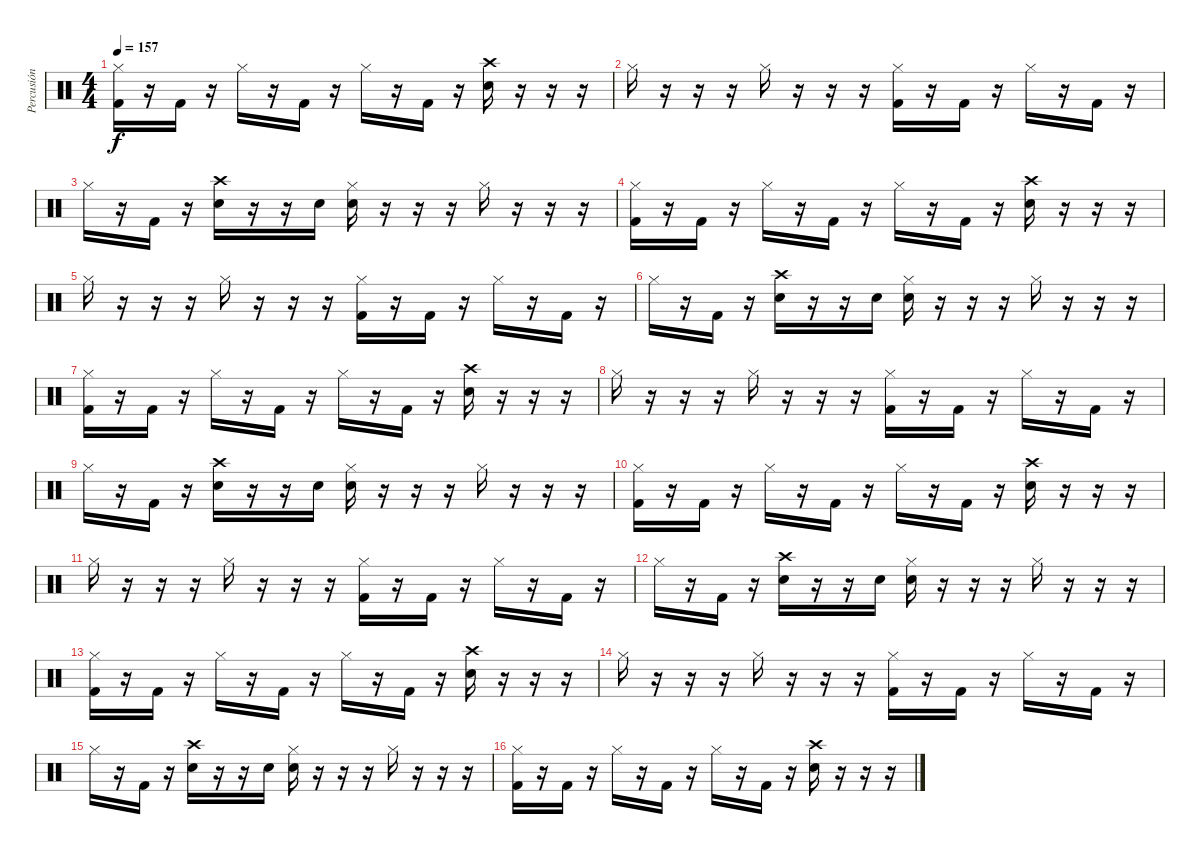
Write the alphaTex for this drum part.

\track ("Percusión" "Percusión") {instrument percussion}
\staff {score}
\articulation defaults
\ts (4 4)
\tempo 157
\clef neutral
\ks c
("Hi-Hat (closed)" "Kick (hit) 2").16{dy f} r.16 "Kick (hit) 2".16 r.16 "Hi-Hat (closed)".16 r.16 "Kick (hit) 2".16 r.16 "Hi-Hat (closed)".16 r.16 "Kick (hit) 2".16 r.16 ("Crash high (hit)" "Electric Snare (hit)").16 r.16 r.16 r.16 |
"Hi-Hat (closed)".16 r.16 r.16 r.16 "Hi-Hat (closed)".16 r.16 r.16 r.16 ("Hi-Hat (closed)" "Kick (hit) 2").16 r.16 "Kick (hit) 2".16 r.16 "Hi-Hat (closed)".16 r.16 "Kick (hit) 2".16 r.16 |
"Hi-Hat (closed)".16 r.16 "Kick (hit) 2".16 r.16 ("Crash high (hit)" "Electric Snare (hit)").16 r.16 r.16 "Electric Snare (hit)".16 ("Hi-Hat (closed)" "Electric Snare (hit)").16 r.16 r.16 r.16 "Hi-Hat (closed)".16 r.16 r.16 r.16 |
("Hi-Hat (closed)" "Kick (hit) 2").16 r.16 "Kick (hit) 2".16 r.16 "Hi-Hat (closed)".16 r.16 "Kick (hit) 2".16 r.16 "Hi-Hat (closed)".16 r.16 "Kick (hit) 2".16 r.16 ("Crash high (hit)" "Electric Snare (hit)").16 r.16 r.16 r.16 |
"Hi-Hat (closed)".16 r.16 r.16 r.16 "Hi-Hat (closed)".16 r.16 r.16 r.16 ("Hi-Hat (closed)" "Kick (hit) 2").16 r.16 "Kick (hit) 2".16 r.16 "Hi-Hat (closed)".16 r.16 "Kick (hit) 2".16 r.16 |
"Hi-Hat (closed)".16 r.16 "Kick (hit) 2".16 r.16 ("Crash high (hit)" "Electric Snare (hit)").16 r.16 r.16 "Electric Snare (hit)".16 ("Hi-Hat (closed)" "Electric Snare (hit)").16 r.16 r.16 r.16 "Hi-Hat (closed)".16 r.16 r.16 r.16 |
("Hi-Hat (closed)" "Kick (hit) 2").16 r.16 "Kick (hit) 2".16 r.16 "Hi-Hat (closed)".16 r.16 "Kick (hit) 2".16 r.16 "Hi-Hat (closed)".16 r.16 "Kick (hit) 2".16 r.16 ("Crash high (hit)" "Electric Snare (hit)").16 r.16 r.16 r.16 |
"Hi-Hat (closed)".16 r.16 r.16 r.16 "Hi-Hat (closed)".16 r.16 r.16 r.16 ("Hi-Hat (closed)" "Kick (hit) 2").16 r.16 "Kick (hit) 2".16 r.16 "Hi-Hat (closed)".16 r.16 "Kick (hit) 2".16 r.16 |
"Hi-Hat (closed)".16 r.16 "Kick (hit) 2".16 r.16 ("Crash high (hit)" "Electric Snare (hit)").16 r.16 r.16 "Electric Snare (hit)".16 ("Hi-Hat (closed)" "Electric Snare (hit)").16 r.16 r.16 r.16 "Hi-Hat (closed)".16 r.16 r.16 r.16 |
("Hi-Hat (closed)" "Kick (hit) 2").16 r.16 "Kick (hit) 2".16 r.16 "Hi-Hat (closed)".16 r.16 "Kick (hit) 2".16 r.16 "Hi-Hat (closed)".16 r.16 "Kick (hit) 2".16 r.16 ("Crash high (hit)" "Electric Snare (hit)").16 r.16 r.16 r.16 |
"Hi-Hat (closed)".16 r.16 r.16 r.16 "Hi-Hat (closed)".16 r.16 r.16 r.16 ("Hi-Hat (closed)" "Kick (hit) 2").16 r.16 "Kick (hit) 2".16 r.16 "Hi-Hat (closed)".16 r.16 "Kick (hit) 2".16 r.16 |
"Hi-Hat (closed)".16 r.16 "Kick (hit) 2".16 r.16 ("Crash high (hit)" "Electric Snare (hit)").16 r.16 r.16 "Electric Snare (hit)".16 ("Hi-Hat (closed)" "Electric Snare (hit)").16 r.16 r.16 r.16 "Hi-Hat (closed)".16 r.16 r.16 r.16 |
("Hi-Hat (closed)" "Kick (hit) 2").16 r.16 "Kick (hit) 2".16 r.16 "Hi-Hat (closed)".16 r.16 "Kick (hit) 2".16 r.16 "Hi-Hat (closed)".16 r.16 "Kick (hit) 2".16 r.16 ("Crash high (hit)" "Electric Snare (hit)").16 r.16 r.16 r.16 |
"Hi-Hat (closed)".16 r.16 r.16 r.16 "Hi-Hat (closed)".16 r.16 r.16 r.16 ("Hi-Hat (closed)" "Kick (hit) 2").16 r.16 "Kick (hit) 2".16 r.16 "Hi-Hat (closed)".16 r.16 "Kick (hit) 2".16 r.16 |
"Hi-Hat (closed)".16 r.16 "Kick (hit) 2".16 r.16 ("Crash high (hit)" "Electric Snare (hit)").16 r.16 r.16 "Electric Snare (hit)".16 ("Hi-Hat (closed)" "Electric Snare (hit)").16 r.16 r.16 r.16 "Hi-Hat (closed)".16 r.16 r.16 r.16 |
("Hi-Hat (closed)" "Kick (hit) 2").16 r.16 "Kick (hit) 2".16 r.16 "Hi-Hat (closed)".16 r.16 "Kick (hit) 2".16 r.16 "Hi-Hat (closed)".16 r.16 "Kick (hit) 2".16 r.16 ("Crash high (hit)" "Electric Snare (hit)").16 r.16 r.16 r.16
